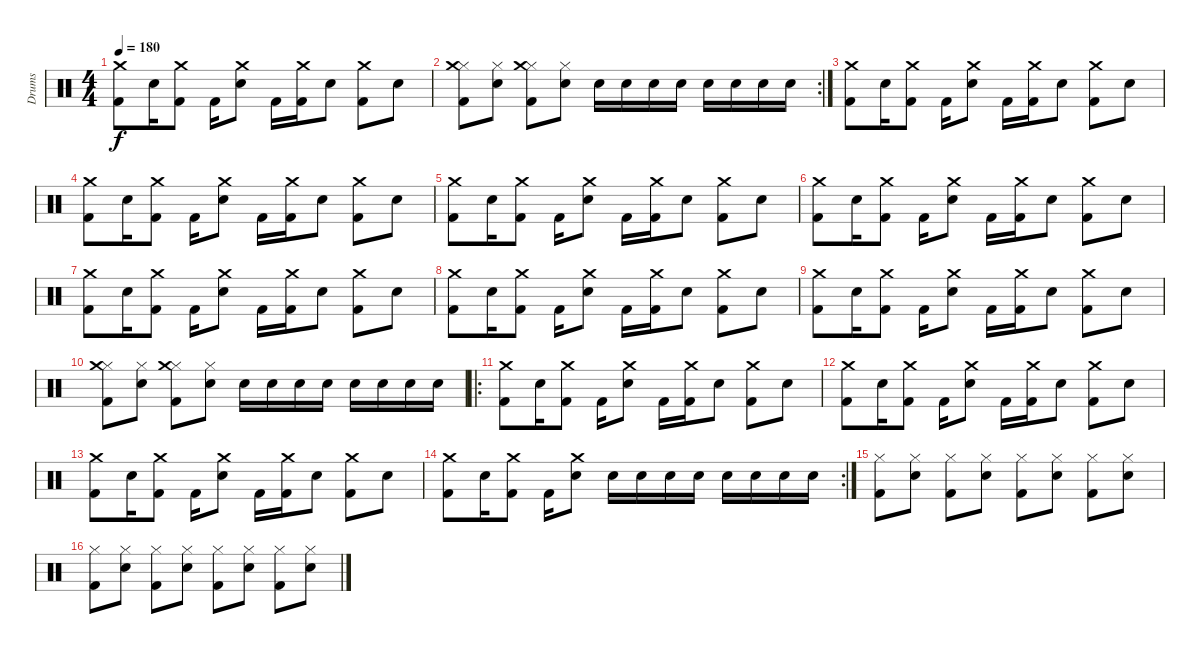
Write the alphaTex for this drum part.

\track ("Drums" "Drums") {instrument percussion}
\staff {score}
\articulation defaults
\ts (4 4)
\tempo 180
\clef neutral
\ks c
("Kick (hit) 2" "Crash medium (hit)").8{dy f} "Snare (hit) 2".16 ("Crash medium (hit)" "Kick (hit) 2").8 "Kick (hit) 2".16 ("Crash medium (hit)" "Snare (hit) 2").8 "Kick (hit) 2".16 ("Crash medium (hit)" "Kick (hit) 2").16 "Snare (hit) 2".8 ("Crash medium (hit)" "Kick (hit) 2").8 "Snare (hit) 2".8 |
\rc 2
("Hi-Hat (closed)" "Crash medium (hit)" "Kick (hit) 2").8 ("Hi-Hat (closed)" "Snare (hit) 2").8 ("Hi-Hat (closed)" "Crash medium (hit)" "Kick (hit) 2").8 ("Hi-Hat (closed)" "Snare (hit) 2").8 "Snare (hit) 2".16 "Snare (hit) 2".16 "Snare (hit) 2".16 "Snare (hit) 2".16 "Snare (hit) 2".16 "Snare (hit) 2".16 "Snare (hit) 2".16 "Snare (hit) 2".16 |
("Kick (hit) 2" "Crash medium (hit)").8 "Snare (hit) 2".16 ("Crash medium (hit)" "Kick (hit) 2").8 "Kick (hit) 2".16 ("Crash medium (hit)" "Snare (hit) 2").8 "Kick (hit) 2".16 ("Crash medium (hit)" "Kick (hit) 2").16 "Snare (hit) 2".8 ("Crash medium (hit)" "Kick (hit) 2").8 "Snare (hit) 2".8 |
("Kick (hit) 2" "Crash medium (hit)").8 "Snare (hit) 2".16 ("Crash medium (hit)" "Kick (hit) 2").8 "Kick (hit) 2".16 ("Crash medium (hit)" "Snare (hit) 2").8 "Kick (hit) 2".16 ("Crash medium (hit)" "Kick (hit) 2").16 "Snare (hit) 2".8 ("Crash medium (hit)" "Kick (hit) 2").8 "Snare (hit) 2".8 |
("Kick (hit) 2" "Crash medium (hit)").8 "Snare (hit) 2".16 ("Crash medium (hit)" "Kick (hit) 2").8 "Kick (hit) 2".16 ("Crash medium (hit)" "Snare (hit) 2").8 "Kick (hit) 2".16 ("Crash medium (hit)" "Kick (hit) 2").16 "Snare (hit) 2".8 ("Crash medium (hit)" "Kick (hit) 2").8 "Snare (hit) 2".8 |
("Kick (hit) 2" "Crash medium (hit)").8 "Snare (hit) 2".16 ("Crash medium (hit)" "Kick (hit) 2").8 "Kick (hit) 2".16 ("Crash medium (hit)" "Snare (hit) 2").8 "Kick (hit) 2".16 ("Crash medium (hit)" "Kick (hit) 2").16 "Snare (hit) 2".8 ("Crash medium (hit)" "Kick (hit) 2").8 "Snare (hit) 2".8 |
("Kick (hit) 2" "Crash medium (hit)").8 "Snare (hit) 2".16 ("Crash medium (hit)" "Kick (hit) 2").8 "Kick (hit) 2".16 ("Crash medium (hit)" "Snare (hit) 2").8 "Kick (hit) 2".16 ("Crash medium (hit)" "Kick (hit) 2").16 "Snare (hit) 2".8 ("Crash medium (hit)" "Kick (hit) 2").8 "Snare (hit) 2".8 |
("Kick (hit) 2" "Crash medium (hit)").8 "Snare (hit) 2".16 ("Crash medium (hit)" "Kick (hit) 2").8 "Kick (hit) 2".16 ("Crash medium (hit)" "Snare (hit) 2").8 "Kick (hit) 2".16 ("Crash medium (hit)" "Kick (hit) 2").16 "Snare (hit) 2".8 ("Crash medium (hit)" "Kick (hit) 2").8 "Snare (hit) 2".8 |
("Kick (hit) 2" "Crash medium (hit)").8 "Snare (hit) 2".16 ("Crash medium (hit)" "Kick (hit) 2").8 "Kick (hit) 2".16 ("Crash medium (hit)" "Snare (hit) 2").8 "Kick (hit) 2".16 ("Crash medium (hit)" "Kick (hit) 2").16 "Snare (hit) 2".8 ("Crash medium (hit)" "Kick (hit) 2").8 "Snare (hit) 2".8 |
("Hi-Hat (closed)" "Crash medium (hit)" "Kick (hit) 2").8 ("Hi-Hat (closed)" "Snare (hit) 2").8 ("Hi-Hat (closed)" "Crash medium (hit)" "Kick (hit) 2").8 ("Hi-Hat (closed)" "Snare (hit) 2").8 "Snare (hit) 2".16 "Snare (hit) 2".16 "Snare (hit) 2".16 "Snare (hit) 2".16 "Snare (hit) 2".16 "Snare (hit) 2".16 "Snare (hit) 2".16 "Snare (hit) 2".16 |
\ro
("Kick (hit) 2" "Crash medium (hit)").8 "Snare (hit) 2".16 ("Crash medium (hit)" "Kick (hit) 2").8 "Kick (hit) 2".16 ("Crash medium (hit)" "Snare (hit) 2").8 "Kick (hit) 2".16 ("Crash medium (hit)" "Kick (hit) 2").16 "Snare (hit) 2".8 ("Crash medium (hit)" "Kick (hit) 2").8 "Snare (hit) 2".8 |
("Kick (hit) 2" "Crash medium (hit)").8 "Snare (hit) 2".16 ("Crash medium (hit)" "Kick (hit) 2").8 "Kick (hit) 2".16 ("Crash medium (hit)" "Snare (hit) 2").8 "Kick (hit) 2".16 ("Crash medium (hit)" "Kick (hit) 2").16 "Snare (hit) 2".8 ("Crash medium (hit)" "Kick (hit) 2").8 "Snare (hit) 2".8 |
("Kick (hit) 2" "Crash medium (hit)").8 "Snare (hit) 2".16 ("Crash medium (hit)" "Kick (hit) 2").8 "Kick (hit) 2".16 ("Crash medium (hit)" "Snare (hit) 2").8 "Kick (hit) 2".16 ("Crash medium (hit)" "Kick (hit) 2").16 "Snare (hit) 2".8 ("Crash medium (hit)" "Kick (hit) 2").8 "Snare (hit) 2".8 |
\rc 2
("Kick (hit) 2" "Crash medium (hit)").8 "Snare (hit) 2".16 ("Crash medium (hit)" "Kick (hit) 2").8 "Kick (hit) 2".16 ("Crash medium (hit)" "Snare (hit) 2").8 "Snare (hit) 2".16 "Snare (hit) 2".16 "Snare (hit) 2".16 "Snare (hit) 2".16 "Snare (hit) 2".16 "Snare (hit) 2".16 "Snare (hit) 2".16 "Snare (hit) 2".16 |
("Hi-Hat (closed)" "Kick (hit) 2").8 ("Hi-Hat (closed)" "Snare (hit) 2").8 ("Hi-Hat (closed)" "Kick (hit) 2").8 ("Hi-Hat (closed)" "Snare (hit) 2").8 ("Hi-Hat (closed)" "Kick (hit) 2").8 ("Hi-Hat (closed)" "Snare (hit) 2").8 ("Hi-Hat (closed)" "Kick (hit) 2").8 ("Hi-Hat (closed)" "Snare (hit) 2").8 |
("Hi-Hat (closed)" "Kick (hit) 2").8 ("Hi-Hat (closed)" "Snare (hit) 2").8 ("Hi-Hat (closed)" "Kick (hit) 2").8 ("Hi-Hat (closed)" "Snare (hit) 2").8 ("Hi-Hat (closed)" "Kick (hit) 2").8 ("Hi-Hat (closed)" "Snare (hit) 2").8 ("Hi-Hat (closed)" "Kick (hit) 2").8 ("Hi-Hat (closed)" "Snare (hit) 2").8
